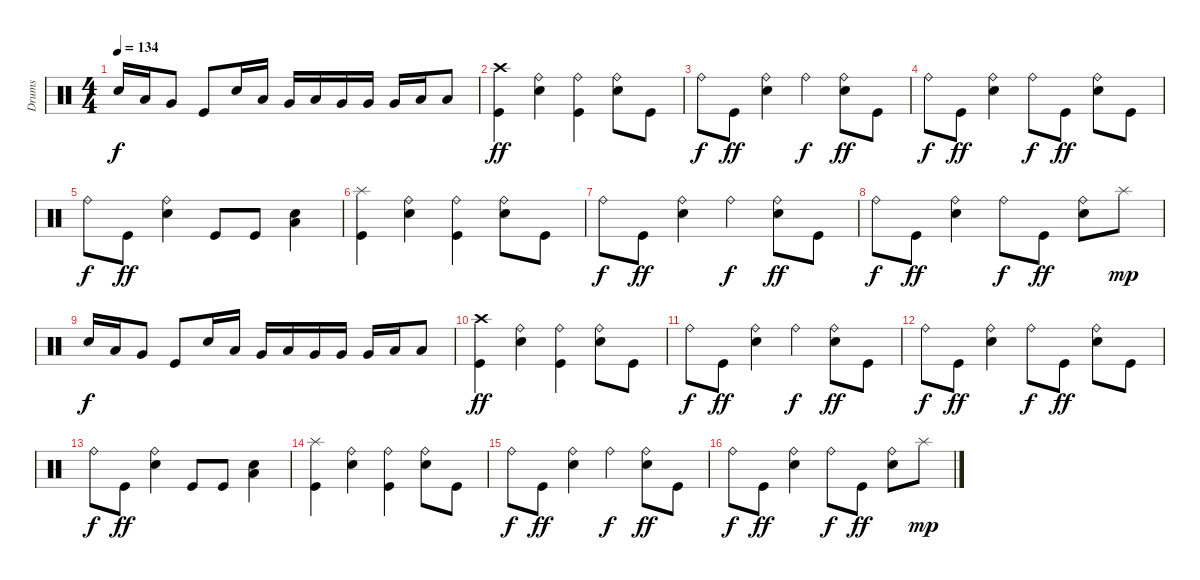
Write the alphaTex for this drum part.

\track ("Drums" "Drums") {instrument percussion}
\staff {score}
\articulation defaults
\ts (4 4)
\tempo 134
\clef neutral
\ks c "Electric Snare (hit)".16{dy f} "Low Tom (hit)".16 "Very Low Tom (hit)".8 "Kick (hit)".8 "Electric Snare (hit)".16 "Low Tom (hit)".16 "Very Low Tom (hit)".16 "Low Floor Tom (hit)".16 "Very Low Tom (hit)".16 "Very Low Tom (hit)".16 "Very Low Tom (hit)".16 "Low Floor Tom (hit)".16 "Low Floor Tom (hit)".8
|
("Crash high (hit)" "Kick (hit)").4{dy ff} ("Ride (bell)" "Electric Snare (hit)").4 ("Ride (bell)" "Kick (hit)").4 ("Ride (bell)" "Electric Snare (hit)").8 "Kick (hit)".8 |
"Ride (bell)".8{dy f} "Kick (hit)".8{dy ff} ("Ride (bell)" "Electric Snare (hit)").4 "Ride (bell)".4{dy f} ("Ride (bell)" "Electric Snare (hit)").8{dy ff} "Kick (hit)".8 |
"Ride (bell)".8{dy f} "Kick (hit)".8{dy ff} ("Ride (bell)" "Electric Snare (hit)").4 "Ride (bell)".8{dy f} "Kick (hit)".8{dy ff} ("Ride (bell)" "Electric Snare (hit)").8 "Kick (hit)".8 |
"Ride (bell)".8{dy f} "Kick (hit)".8{dy ff} ("Ride (bell)" "Electric Snare (hit)").4 "Kick (hit)".8 "Kick (hit)".8 ("Low Floor Tom (hit)" "Electric Snare (hit)").4 |
("Splash (hit)" "Kick (hit)").4 ("Ride (bell)" "Electric Snare (hit)").4 ("Ride (bell)" "Kick (hit)").4 ("Ride (bell)" "Electric Snare (hit)").8 "Kick (hit)".8 |
"Ride (bell)".8{dy f} "Kick (hit)".8{dy ff} ("Ride (bell)" "Electric Snare (hit)").4 "Ride (bell)".4{dy f} ("Ride (bell)" "Electric Snare (hit)").8{dy ff} "Kick (hit)".8 |
"Ride (bell)".8{dy f} "Kick (hit)".8{dy ff} ("Ride (bell)" "Electric Snare (hit)").4 "Ride (bell)".8{dy f} "Kick (hit)".8{dy ff} ("Ride (bell)" "Electric Snare (hit)").8 "Splash (hit)".8{dy mp} |
"Electric Snare (hit)".16{dy f} "Low Tom (hit)".16 "Very Low Tom (hit)".8 "Kick (hit)".8 "Electric Snare (hit)".16 "Low Tom (hit)".16 "Very Low Tom (hit)".16 "Low Floor Tom (hit)".16 "Very Low Tom (hit)".16 "Very Low Tom (hit)".16 "Very Low Tom (hit)".16 "Low Floor Tom (hit)".16 "Low Floor Tom (hit)".8 |
("Crash high (hit)" "Kick (hit)").4{dy ff} ("Ride (bell)" "Electric Snare (hit)").4 ("Ride (bell)" "Kick (hit)").4 ("Ride (bell)" "Electric Snare (hit)").8 "Kick (hit)".8 |
"Ride (bell)".8{dy f} "Kick (hit)".8{dy ff} ("Ride (bell)" "Electric Snare (hit)").4 "Ride (bell)".4{dy f} ("Ride (bell)" "Electric Snare (hit)").8{dy ff} "Kick (hit)".8 |
"Ride (bell)".8{dy f} "Kick (hit)".8{dy ff} ("Ride (bell)" "Electric Snare (hit)").4 "Ride (bell)".8{dy f} "Kick (hit)".8{dy ff} ("Ride (bell)" "Electric Snare (hit)").8 "Kick (hit)".8 |
"Ride (bell)".8{dy f} "Kick (hit)".8{dy ff} ("Ride (bell)" "Electric Snare (hit)").4 "Kick (hit)".8 "Kick (hit)".8 ("Low Floor Tom (hit)" "Electric Snare (hit)").4 |
("Splash (hit)" "Kick (hit)").4 ("Ride (bell)" "Electric Snare (hit)").4 ("Ride (bell)" "Kick (hit)").4 ("Ride (bell)" "Electric Snare (hit)").8 "Kick (hit)".8 |
"Ride (bell)".8{dy f} "Kick (hit)".8{dy ff} ("Ride (bell)" "Electric Snare (hit)").4 "Ride (bell)".4{dy f} ("Ride (bell)" "Electric Snare (hit)").8{dy ff} "Kick (hit)".8 |
"Ride (bell)".8{dy f} "Kick (hit)".8{dy ff} ("Ride (bell)" "Electric Snare (hit)").4 "Ride (bell)".8{dy f} "Kick (hit)".8{dy ff} ("Ride (bell)" "Electric Snare (hit)").8 "Splash (hit)".8{dy mp}
